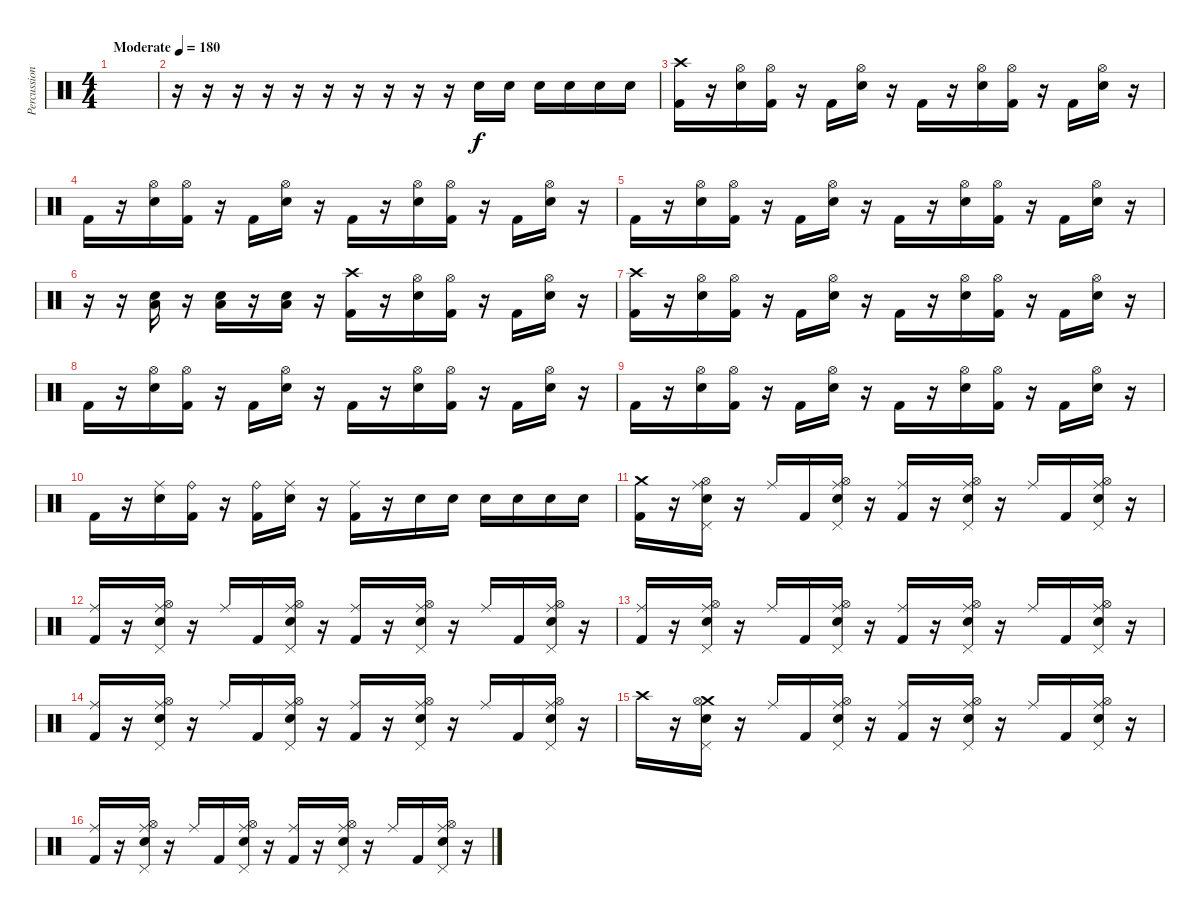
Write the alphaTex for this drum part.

\track ("Percussion" "Percussion") {instrument percussion}
\staff {score}
\articulation defaults
\ts (4 4)
\tempo (180 "Moderate")
\clef neutral
\ks c
|
r.16 r.16 r.16 r.16 r.16 r.16 r.16 r.16 r.16 r.16 "Electric Snare (hit)".16 "Electric Snare (hit)".16 "Electric Snare (hit)".16 "Electric Snare (hit)".16 "Electric Snare (hit)".16 "Electric Snare (hit)".16 |
("Crash high (hit)" "Kick (hit) 2").16 r.16 ("Hi-Hat (open)" "Electric Snare (hit)").16 ("Hi-Hat (open)" "Kick (hit) 2").16 r.16 "Kick (hit) 2".16 ("Hi-Hat (open)" "Electric Snare (hit)").16 r.16 "Kick (hit) 2".16 r.16 ("Hi-Hat (open)" "Electric Snare (hit)").16 ("Hi-Hat (open)" "Kick (hit) 2").16 r.16 "Kick (hit) 2".16 ("Hi-Hat (open)" "Electric Snare (hit)").16 r.16 |
"Kick (hit) 2".16 r.16 ("Hi-Hat (open)" "Electric Snare (hit)").16 ("Hi-Hat (open)" "Kick (hit) 2").16 r.16 "Kick (hit) 2".16 ("Hi-Hat (open)" "Electric Snare (hit)").16 r.16 "Kick (hit) 2".16 r.16 ("Hi-Hat (open)" "Electric Snare (hit)").16 ("Hi-Hat (open)" "Kick (hit) 2").16 r.16 "Kick (hit) 2".16 ("Hi-Hat (open)" "Electric Snare (hit)").16 r.16 |
"Kick (hit) 2".16 r.16 ("Hi-Hat (open)" "Electric Snare (hit)").16 ("Hi-Hat (open)" "Kick (hit) 2").16 r.16 "Kick (hit) 2".16 ("Hi-Hat (open)" "Electric Snare (hit)").16 r.16 "Kick (hit) 2".16 r.16 ("Hi-Hat (open)" "Electric Snare (hit)").16 ("Hi-Hat (open)" "Kick (hit) 2").16 r.16 "Kick (hit) 2".16 ("Hi-Hat (open)" "Electric Snare (hit)").16 r.16 |
r.16 r.16 ("Low Tom (hit)" "Electric Snare (hit)").16 r.16 ("Low Tom (hit)" "Electric Snare (hit)").16 r.16 ("Low Tom (hit)" "Electric Snare (hit)").16 r.16 ("Crash high (hit)" "Kick (hit) 2").16 r.16 ("Hi-Hat (open)" "Electric Snare (hit)").16 ("Hi-Hat (open)" "Kick (hit) 2").16 r.16 "Kick (hit) 2".16 ("Hi-Hat (open)" "Electric Snare (hit)").16 r.16 |
("Crash high (hit)" "Kick (hit) 2").16 r.16 ("Hi-Hat (open)" "Electric Snare (hit)").16 ("Hi-Hat (open)" "Kick (hit) 2").16 r.16 "Kick (hit) 2".16 ("Hi-Hat (open)" "Electric Snare (hit)").16 r.16 "Kick (hit) 2".16 r.16 ("Hi-Hat (open)" "Electric Snare (hit)").16 ("Hi-Hat (open)" "Kick (hit) 2").16 r.16 "Kick (hit) 2".16 ("Hi-Hat (open)" "Electric Snare (hit)").16 r.16 |
"Kick (hit) 2".16 r.16 ("Hi-Hat (open)" "Electric Snare (hit)").16 ("Hi-Hat (open)" "Kick (hit) 2").16 r.16 "Kick (hit) 2".16 ("Hi-Hat (open)" "Electric Snare (hit)").16 r.16 "Kick (hit) 2".16 r.16 ("Hi-Hat (open)" "Electric Snare (hit)").16 ("Hi-Hat (open)" "Kick (hit) 2").16 r.16 "Kick (hit) 2".16 ("Hi-Hat (open)" "Electric Snare (hit)").16 r.16 |
"Kick (hit) 2".16 r.16 ("Hi-Hat (open)" "Electric Snare (hit)").16 ("Hi-Hat (open)" "Kick (hit) 2").16 r.16 "Kick (hit) 2".16 ("Hi-Hat (open)" "Electric Snare (hit)").16 r.16 "Kick (hit) 2".16 r.16 ("Hi-Hat (open)" "Electric Snare (hit)").16 ("Hi-Hat (open)" "Kick (hit) 2").16 r.16 "Kick (hit) 2".16 ("Hi-Hat (open)" "Electric Snare (hit)").16 r.16 |
"Kick (hit) 2".16 r.16 ("Ride (middle)" "Electric Snare (hit)").16 ("Ride (bell)" "Kick (hit) 2").16 r.16 ("Ride (bell)" "Kick (hit) 2").16 ("Ride (middle)" "Electric Snare (hit)").16 r.16 ("Ride (middle)" "Kick (hit) 2").16 r.16 "Electric Snare (hit)".16 "Electric Snare (hit)".16 "Electric Snare (hit)".16 "Electric Snare (hit)".16 "Electric Snare (hit)".16 "Electric Snare (hit)".16 |
("Crash medium (hit)" "Kick (hit) 2").16 r.16 ("Ride (middle)" "Hi-Hat (open)" "Pedal Hi-Hat (hit)" "Electric Snare (hit)").16 r.16 "Ride (middle)".16 "Kick (hit) 2".16 ("Ride (middle)" "Hi-Hat (open)" "Pedal Hi-Hat (hit)" "Electric Snare (hit)").16 r.16 ("Ride (middle)" "Kick (hit) 2").16 r.16 ("Ride (middle)" "Hi-Hat (open)" "Pedal Hi-Hat (hit)" "Electric Snare (hit)").16 r.16 "Ride (middle)".16 "Kick (hit) 2".16 ("Ride (middle)" "Hi-Hat (open)" "Pedal Hi-Hat (hit)" "Electric Snare (hit)").16 r.16 |
("Ride (middle)" "Kick (hit) 2").16 r.16 ("Ride (middle)" "Hi-Hat (open)" "Pedal Hi-Hat (hit)" "Electric Snare (hit)").16 r.16 "Ride (middle)".16 "Kick (hit) 2".16 ("Ride (middle)" "Hi-Hat (open)" "Pedal Hi-Hat (hit)" "Electric Snare (hit)").16 r.16 ("Ride (middle)" "Kick (hit) 2").16 r.16 ("Ride (middle)" "Hi-Hat (open)" "Pedal Hi-Hat (hit)" "Electric Snare (hit)").16 r.16 "Ride (middle)".16 "Kick (hit) 2".16 ("Ride (middle)" "Hi-Hat (open)" "Pedal Hi-Hat (hit)" "Electric Snare (hit)").16 r.16 |
("Ride (middle)" "Kick (hit) 2").16 r.16 ("Ride (middle)" "Hi-Hat (open)" "Pedal Hi-Hat (hit)" "Electric Snare (hit)").16 r.16 "Ride (middle)".16 "Kick (hit) 2".16 ("Ride (middle)" "Hi-Hat (open)" "Pedal Hi-Hat (hit)" "Electric Snare (hit)").16 r.16 ("Ride (middle)" "Kick (hit) 2").16 r.16 ("Ride (middle)" "Hi-Hat (open)" "Pedal Hi-Hat (hit)" "Electric Snare (hit)").16 r.16 "Ride (middle)".16 "Kick (hit) 2".16 ("Ride (middle)" "Hi-Hat (open)" "Pedal Hi-Hat (hit)" "Electric Snare (hit)").16 r.16 |
("Ride (middle)" "Kick (hit) 2").16 r.16 ("Ride (middle)" "Hi-Hat (open)" "Pedal Hi-Hat (hit)" "Electric Snare (hit)").16 r.16 "Ride (middle)".16 "Kick (hit) 2".16 ("Ride (middle)" "Hi-Hat (open)" "Pedal Hi-Hat (hit)" "Electric Snare (hit)").16 r.16 ("Ride (middle)" "Kick (hit) 2").16 r.16 ("Ride (middle)" "Hi-Hat (open)" "Pedal Hi-Hat (hit)" "Electric Snare (hit)").16 r.16 "Ride (middle)".16 "Kick (hit) 2".16 ("Ride (middle)" "Hi-Hat (open)" "Pedal Hi-Hat (hit)" "Electric Snare (hit)").16 r.16 |
"Crash high (hit)".16 r.16 ("Crash medium (hit)" "Hi-Hat (open)" "Pedal Hi-Hat (hit)" "Electric Snare (hit)").16 r.16 "Ride (middle)".16 "Kick (hit) 2".16 ("Ride (middle)" "Hi-Hat (open)" "Pedal Hi-Hat (hit)" "Electric Snare (hit)").16 r.16 ("Ride (middle)" "Kick (hit) 2").16 r.16 ("Ride (middle)" "Hi-Hat (open)" "Pedal Hi-Hat (hit)" "Electric Snare (hit)").16 r.16 "Ride (middle)".16 "Kick (hit) 2".16 ("Ride (middle)" "Hi-Hat (open)" "Pedal Hi-Hat (hit)" "Electric Snare (hit)").16 r.16 |
("Ride (middle)" "Kick (hit) 2").16 r.16 ("Ride (middle)" "Hi-Hat (open)" "Pedal Hi-Hat (hit)" "Electric Snare (hit)").16 r.16 "Ride (middle)".16 "Kick (hit) 2".16 ("Ride (middle)" "Hi-Hat (open)" "Pedal Hi-Hat (hit)" "Electric Snare (hit)").16 r.16 ("Ride (middle)" "Kick (hit) 2").16 r.16 ("Ride (middle)" "Hi-Hat (open)" "Pedal Hi-Hat (hit)" "Electric Snare (hit)").16 r.16 "Ride (middle)".16 "Kick (hit) 2".16 ("Ride (middle)" "Hi-Hat (open)" "Pedal Hi-Hat (hit)" "Electric Snare (hit)").16 r.16
